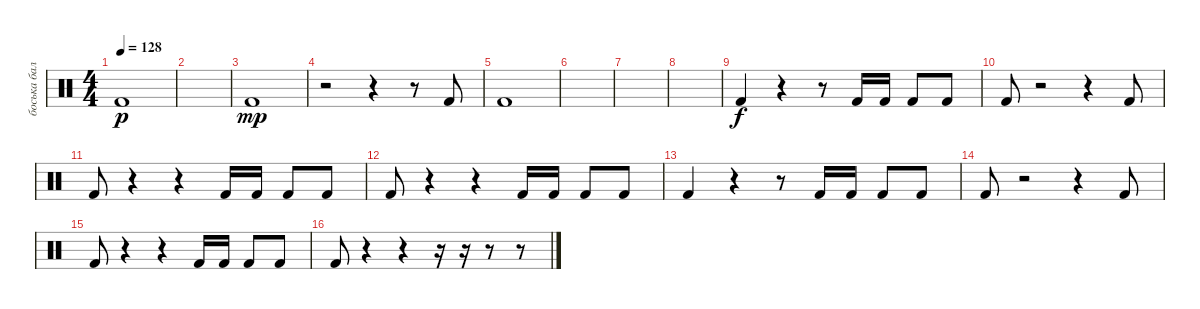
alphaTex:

\track ("боська балабаськов" "боська бал") {instrument percussion}
\staff {score}
\articulation defaults
\ts (4 4)
\tempo 128
\clef neutral
\ks c "Kick (hit) 2".1{dy p}
|
|
"Kick (hit) 2".1{dy mp} |
r.2 r.4 r.8 "Kick (hit) 2".8 |
"Kick (hit) 2".1 |
|
|
|
"Kick (hit) 2".4{dy f} r.4 r.8 "Kick (hit) 2".16 "Kick (hit) 2".16 "Kick (hit) 2".8 "Kick (hit) 2".8 |
"Kick (hit) 2".8 r.2 r.4 "Kick (hit) 2".8 |
"Kick (hit) 2".8 r.4 r.4 "Kick (hit) 2".16 "Kick (hit) 2".16 "Kick (hit) 2".8 "Kick (hit) 2".8 |
"Kick (hit) 2".8 r.4 r.4 "Kick (hit) 2".16 "Kick (hit) 2".16 "Kick (hit) 2".8 "Kick (hit) 2".8 |
"Kick (hit) 2".4 r.4 r.8 "Kick (hit) 2".16 "Kick (hit) 2".16 "Kick (hit) 2".8 "Kick (hit) 2".8 |
"Kick (hit) 2".8 r.2 r.4 "Kick (hit) 2".8 |
"Kick (hit) 2".8 r.4 r.4 "Kick (hit) 2".16 "Kick (hit) 2".16 "Kick (hit) 2".8 "Kick (hit) 2".8 |
"Kick (hit) 2".8 r.4 r.4 r.16 r.16 r.8 r.8
